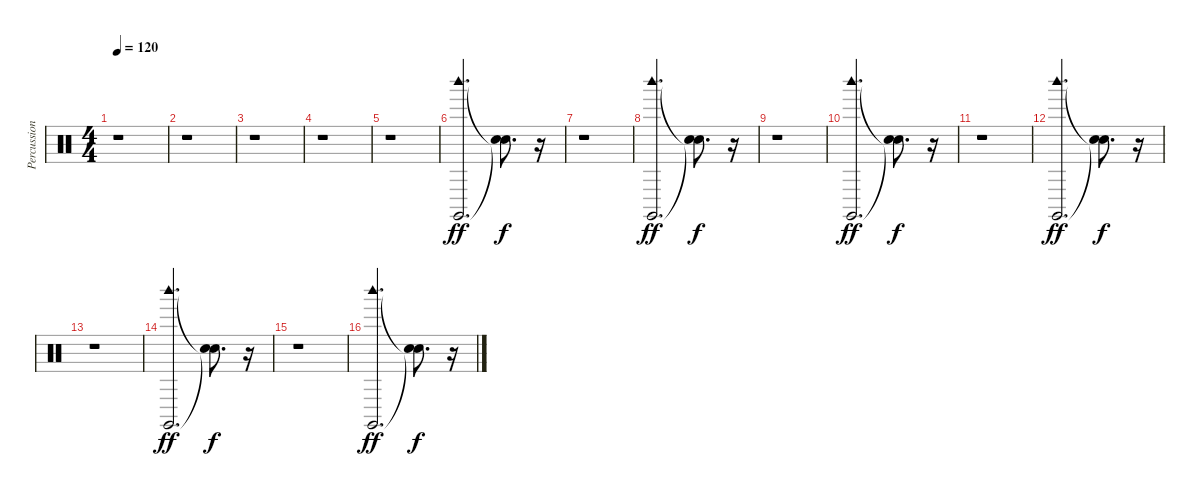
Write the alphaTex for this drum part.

\track ("Percussions" "Percussion") {instrument percussion}
\staff {score}
\articulation defaults
\ts (4 4)
\tempo 120
\clef neutral
\ks c
r.1{dy ff} |
r.1 |
r.1 |
r.1 |
r.1 |
("Claves (hit)" "Woodblock high (hit)").2{d} ("Snare (hit)"{t} "Snare (hit)"{t}).8{d dy f} r.16 |
r.1 |
("Claves (hit)" "Woodblock high (hit)").2{d dy ff} ("Snare (hit)"{t} "Snare (hit)"{t}).8{d dy f} r.16 |
r.1 |
("Claves (hit)" "Woodblock high (hit)").2{d dy ff} ("Snare (hit)"{t} "Snare (hit)"{t}).8{d dy f} r.16 |
r.1 |
("Claves (hit)" "Woodblock high (hit)").2{d dy ff} ("Snare (hit)"{t} "Snare (hit)"{t}).8{d dy f} r.16 |
r.1 |
("Claves (hit)" "Woodblock high (hit)").2{d dy ff} ("Snare (hit)"{t} "Snare (hit)"{t}).8{d dy f} r.16 |
r.1 |
("Claves (hit)" "Woodblock high (hit)").2{d dy ff} ("Snare (hit)"{t} "Snare (hit)"{t}).8{d dy f} r.16
